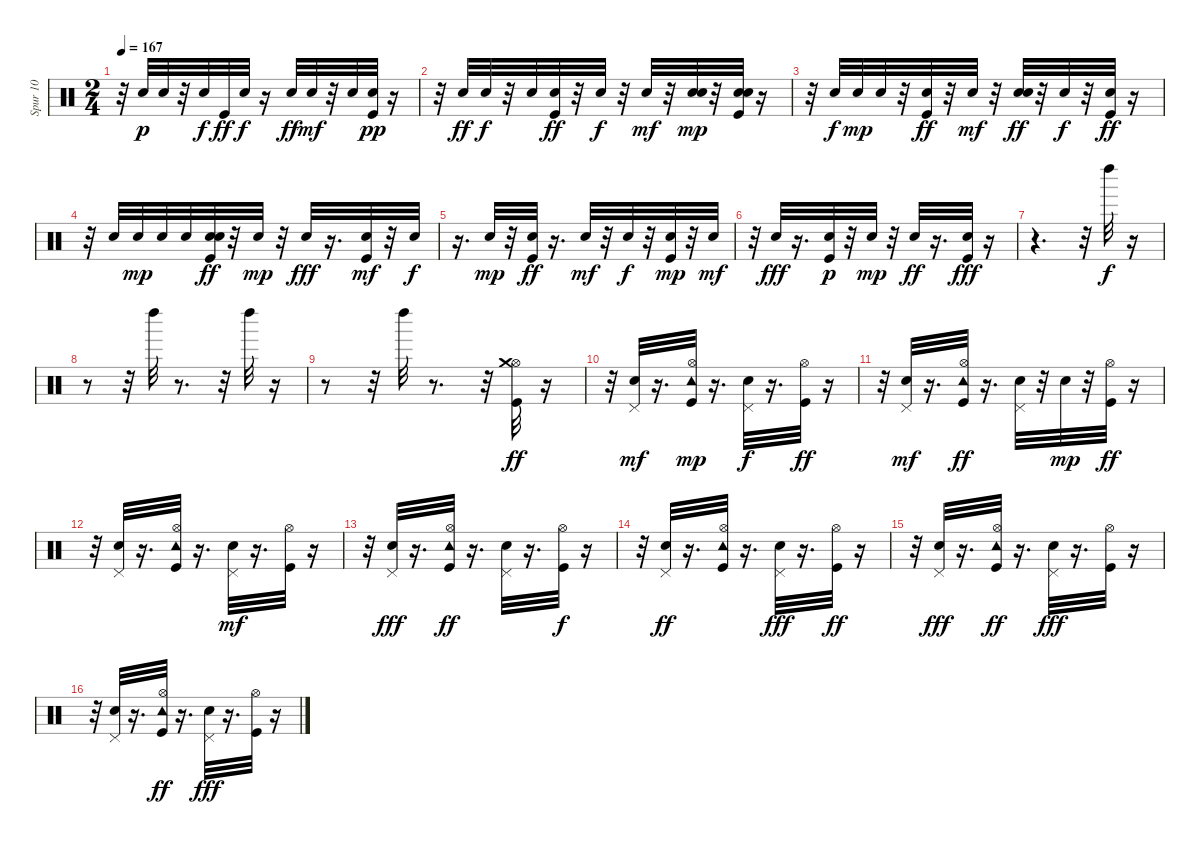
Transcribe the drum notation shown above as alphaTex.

\track ("Spur 10" "Spur 10") {instrument percussion}
\staff {score}
\articulation defaults
\ts (2 4)
\tempo 167
\clef neutral
\ks c
r.32{dy mf} "Snare (hit) 2".32{dy p} "Snare (hit) 2".32 r.32 "Snare (hit) 2".32{dy f} "Kick (hit)".32{dy ff} "Snare (hit) 2".32{dy f} r.16 "Snare (hit) 2".32{dy ff} "Snare (hit) 2".32{dy mf} r.32 "Snare (hit) 2".32 ("Kick (hit)" "Snare (hit) 2").32{dy pp} r.16 |
r.32 "Snare (hit) 2".32{dy ff} "Snare (hit) 2".32{dy f} r.32 "Snare (hit) 2".32 ("Snare (hit) 2" "Kick (hit)").32{dy ff} r.32 "Snare (hit) 2".32{dy f} r.32 "Snare (hit) 2".32{dy mf} r.32 ("Snare (hit) 2" "Snare (hit) 2").32{dy mp} r.32 ("Snare (hit) 2" "Kick (hit)" "Snare (hit) 2").32 r.16 |
r.32 "Snare (hit) 2".32{dy f} "Snare (hit) 2".32{dy mp} "Snare (hit) 2".32 r.32 ("Snare (hit) 2" "Kick (hit)").32{dy ff} r.32 "Snare (hit) 2".32{dy mf} r.32 ("Snare (hit) 2" "Snare (hit) 2").32{dy ff} r.32 "Snare (hit) 2".32{dy f} r.32 ("Snare (hit) 2" "Kick (hit)").32{dy ff} r.16 |
r.32 "Snare (hit) 2".32 "Snare (hit) 2".32{dy mp} "Snare (hit) 2".32 "Snare (hit) 2".32 ("Snare (hit) 2" "Snare (hit) 2" "Kick (hit)").32{dy ff} r.32 "Snare (hit) 2".32{dy mp} r.32 "Snare (hit) 2".32{dy fff} r.16{d} ("Snare (hit) 2" "Kick (hit)").32{dy mf} r.32 "Snare (hit) 2".32{dy f} |
r.16{d} "Snare (hit) 2".32{dy mp} r.32 ("Snare (hit) 2" "Kick (hit)").32{dy ff} r.16{d} "Snare (hit) 2".32{dy mf} r.32 "Snare (hit) 2".32{dy f} r.32 ("Kick (hit)" "Snare (hit) 2").32{dy mp} r.32 "Snare (hit) 2".32{dy mf} |
r.32 "Snare (hit) 2".32{dy fff} r.16{d} ("Kick (hit)" "Snare (hit) 2").32{dy p} r.32 "Snare (hit) 2".32{dy mp} r.32 "Snare (hit) 2".32{dy ff} r.16{d} ("Snare (hit) 2" "Kick (hit)").32{dy fff} r.16 |
r.4{d} r.32 "Left Maraca (hit)".32{dy f} r.16 |
r.8 r.32 "Left Maraca (hit)".32 r.8{d} r.32 "Left Maraca (hit)".32 r.16 |
r.8 r.32 "Left Maraca (hit)".32 r.8{d} r.32 ("Hi-Hat (open)" "Kick (hit)" "Crash medium (hit)").32{dy ff} r.16 |
r.32 ("Snare (hit) 2" "Pedal Hi-Hat (hit)").32{dy mf} r.16{d} ("Kick (hit)" "Tambourine (hit)" "Hi-Hat (open)").32{dy mp} r.16{d} ("Snare (hit) 2" "Pedal Hi-Hat (hit)").32{dy f} r.16{d} ("Hi-Hat (open)" "Kick (hit)").32{dy ff} r.16 |
r.32 ("Pedal Hi-Hat (hit)" "Snare (hit) 2").32{dy mf} r.16{d} ("Kick (hit)" "Hi-Hat (open)" "Tambourine (hit)").32{dy ff} r.16{d} ("Snare (hit) 2" "Pedal Hi-Hat (hit)").32 r.32 "Snare (hit) 2".32{dy mp} r.32 ("Hi-Hat (open)" "Kick (hit)").32{dy ff} r.16 |
r.32 ("Snare (hit) 2" "Pedal Hi-Hat (hit)").32 r.16{d} ("Tambourine (hit)" "Kick (hit)" "Hi-Hat (open)").32 r.16{d} ("Pedal Hi-Hat (hit)" "Snare (hit) 2").32{dy mf} r.16{d} ("Hi-Hat (open)" "Kick (hit)").32 r.16 |
r.32 ("Pedal Hi-Hat (hit)" "Snare (hit) 2").32{dy fff} r.16{d} ("Hi-Hat (open)" "Tambourine (hit)" "Kick (hit)").32{dy ff} r.16{d} ("Snare (hit) 2" "Pedal Hi-Hat (hit)").32 r.16{d} ("Kick (hit)" "Hi-Hat (open)").32{dy f} r.16 |
r.32 ("Snare (hit) 2" "Pedal Hi-Hat (hit)").32{dy ff} r.16{d} ("Hi-Hat (open)" "Tambourine (hit)" "Kick (hit)").32 r.16{d} ("Snare (hit) 2" "Pedal Hi-Hat (hit)").32{dy fff} r.16{d} ("Hi-Hat (open)" "Kick (hit)").32{dy ff} r.16 |
r.32 ("Pedal Hi-Hat (hit)" "Snare (hit) 2").32{dy fff} r.16{d} ("Kick (hit)" "Tambourine (hit)" "Hi-Hat (open)").32{dy ff} r.16{d} ("Pedal Hi-Hat (hit)" "Snare (hit) 2").32{dy fff} r.16{d} ("Kick (hit)" "Hi-Hat (open)").32 r.16 |
r.32 ("Snare (hit) 2" "Pedal Hi-Hat (hit)").32 r.16{d} ("Hi-Hat (open)" "Kick (hit)" "Tambourine (hit)").32{dy ff} r.16{d} ("Snare (hit) 2" "Pedal Hi-Hat (hit)").32{dy fff} r.16{d} ("Hi-Hat (open)" "Kick (hit)").32 r.16
